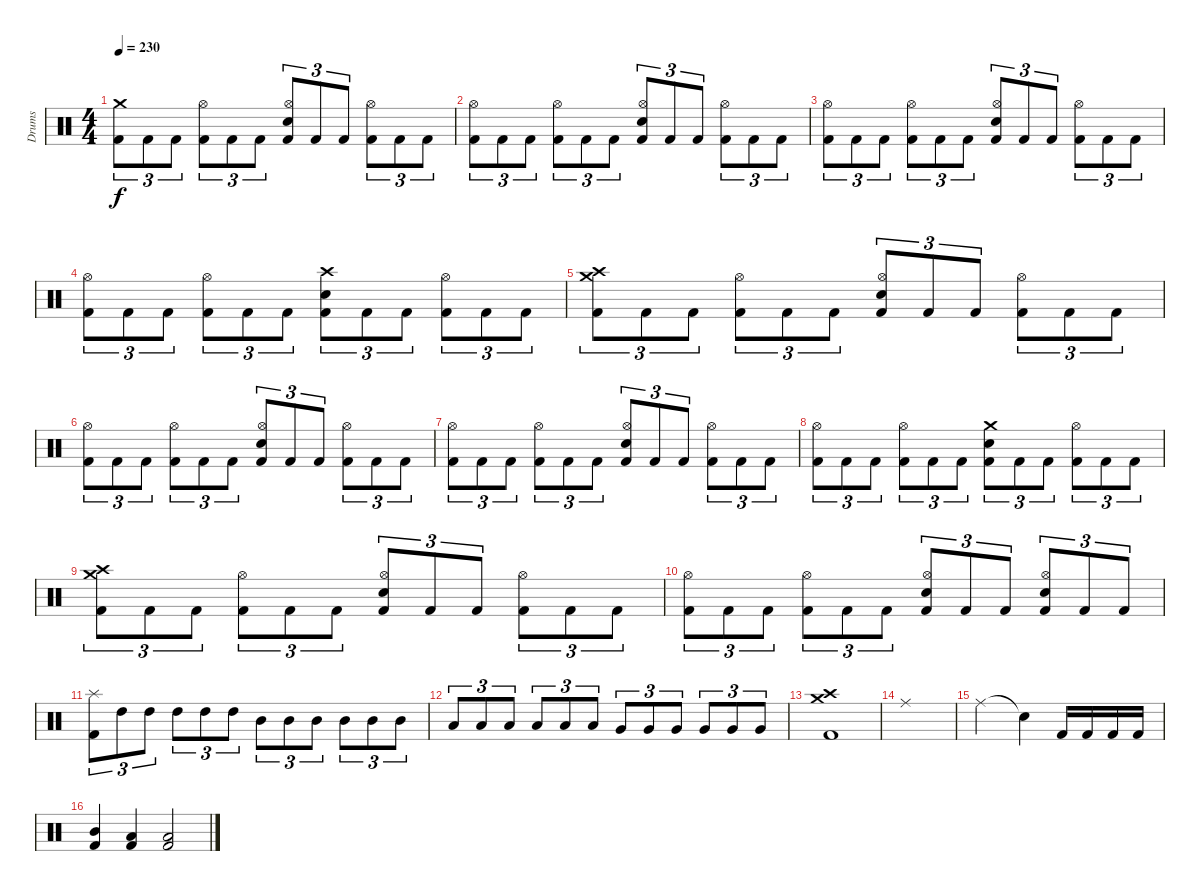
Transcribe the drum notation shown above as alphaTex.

\track ("Drums" "Drums") {instrument percussion}
\staff {score}
\articulation defaults
\ts (4 4)
\tempo 230
\clef neutral
\ks c
("Crash medium (hit)" "Kick (hit) 2").8{tu (3 2) dy f} "Kick (hit) 2".8{tu (3 2)} "Kick (hit) 2".8{tu (3 2)} ("Hi-Hat (open)" "Kick (hit) 2").8{tu (3 2)} "Kick (hit) 2".8{tu (3 2)} "Kick (hit) 2".8{tu (3 2)} ("Hi-Hat (open)" "Electric Snare (hit)" "Kick (hit) 2").8{tu (3 2)} "Kick (hit) 2".8{tu (3 2)} "Kick (hit) 2".8{tu (3 2)} ("Hi-Hat (open)" "Kick (hit) 2").8{tu (3 2)} "Kick (hit) 2".8{tu (3 2)} "Kick (hit) 2".8{tu (3 2)} |
("Hi-Hat (open)" "Kick (hit) 2").8{tu (3 2)} "Kick (hit) 2".8{tu (3 2)} "Kick (hit) 2".8{tu (3 2)} ("Hi-Hat (open)" "Kick (hit) 2").8{tu (3 2)} "Kick (hit) 2".8{tu (3 2)} "Kick (hit) 2".8{tu (3 2)} ("Hi-Hat (open)" "Electric Snare (hit)" "Kick (hit) 2").8{tu (3 2)} "Kick (hit) 2".8{tu (3 2)} "Kick (hit) 2".8{tu (3 2)} ("Hi-Hat (open)" "Kick (hit) 2").8{tu (3 2)} "Kick (hit) 2".8{tu (3 2)} "Kick (hit) 2".8{tu (3 2)} |
("Hi-Hat (open)" "Kick (hit) 2").8{tu (3 2)} "Kick (hit) 2".8{tu (3 2)} "Kick (hit) 2".8{tu (3 2)} ("Hi-Hat (open)" "Kick (hit) 2").8{tu (3 2)} "Kick (hit) 2".8{tu (3 2)} "Kick (hit) 2".8{tu (3 2)} ("Hi-Hat (open)" "Electric Snare (hit)" "Kick (hit) 2").8{tu (3 2)} "Kick (hit) 2".8{tu (3 2)} "Kick (hit) 2".8{tu (3 2)} ("Hi-Hat (open)" "Kick (hit) 2").8{tu (3 2)} "Kick (hit) 2".8{tu (3 2)} "Kick (hit) 2".8{tu (3 2)} |
("Hi-Hat (open)" "Kick (hit) 2").8{tu (3 2)} "Kick (hit) 2".8{tu (3 2)} "Kick (hit) 2".8{tu (3 2)} ("Hi-Hat (open)" "Kick (hit) 2").8{tu (3 2)} "Kick (hit) 2".8{tu (3 2)} "Kick (hit) 2".8{tu (3 2)} ("Crash high (hit)" "Electric Snare (hit)" "Kick (hit) 2").8{tu (3 2)} "Kick (hit) 2".8{tu (3 2)} "Kick (hit) 2".8{tu (3 2)} ("Hi-Hat (open)" "Kick (hit) 2").8{tu (3 2)} "Kick (hit) 2".8{tu (3 2)} "Kick (hit) 2".8{tu (3 2)} |
("Crash medium (hit)" "Crash high (hit)" "Kick (hit) 2").8{tu (3 2)} "Kick (hit) 2".8{tu (3 2)} "Kick (hit) 2".8{tu (3 2)} ("Hi-Hat (open)" "Kick (hit) 2").8{tu (3 2)} "Kick (hit) 2".8{tu (3 2)} "Kick (hit) 2".8{tu (3 2)} ("Hi-Hat (open)" "Electric Snare (hit)" "Kick (hit) 2").8{tu (3 2)} "Kick (hit) 2".8{tu (3 2)} "Kick (hit) 2".8{tu (3 2)} ("Hi-Hat (open)" "Kick (hit) 2").8{tu (3 2)} "Kick (hit) 2".8{tu (3 2)} "Kick (hit) 2".8{tu (3 2)} |
("Hi-Hat (open)" "Kick (hit) 2").8{tu (3 2)} "Kick (hit) 2".8{tu (3 2)} "Kick (hit) 2".8{tu (3 2)} ("Hi-Hat (open)" "Kick (hit) 2").8{tu (3 2)} "Kick (hit) 2".8{tu (3 2)} "Kick (hit) 2".8{tu (3 2)} ("Hi-Hat (open)" "Electric Snare (hit)" "Kick (hit) 2").8{tu (3 2)} "Kick (hit) 2".8{tu (3 2)} "Kick (hit) 2".8{tu (3 2)} ("Hi-Hat (open)" "Kick (hit) 2").8{tu (3 2)} "Kick (hit) 2".8{tu (3 2)} "Kick (hit) 2".8{tu (3 2)} |
("Hi-Hat (open)" "Kick (hit) 2").8{tu (3 2)} "Kick (hit) 2".8{tu (3 2)} "Kick (hit) 2".8{tu (3 2)} ("Hi-Hat (open)" "Kick (hit) 2").8{tu (3 2)} "Kick (hit) 2".8{tu (3 2)} "Kick (hit) 2".8{tu (3 2)} ("Hi-Hat (open)" "Electric Snare (hit)" "Kick (hit) 2").8{tu (3 2)} "Kick (hit) 2".8{tu (3 2)} "Kick (hit) 2".8{tu (3 2)} ("Hi-Hat (open)" "Kick (hit) 2").8{tu (3 2)} "Kick (hit) 2".8{tu (3 2)} "Kick (hit) 2".8{tu (3 2)} |
("Hi-Hat (open)" "Kick (hit) 2").8{tu (3 2)} "Kick (hit) 2".8{tu (3 2)} "Kick (hit) 2".8{tu (3 2)} ("Hi-Hat (open)" "Kick (hit) 2").8{tu (3 2)} "Kick (hit) 2".8{tu (3 2)} "Kick (hit) 2".8{tu (3 2)} ("Crash medium (hit)" "Electric Snare (hit)" "Kick (hit) 2").8{tu (3 2)} "Kick (hit) 2".8{tu (3 2)} "Kick (hit) 2".8{tu (3 2)} ("Hi-Hat (open)" "Kick (hit) 2").8{tu (3 2)} "Kick (hit) 2".8{tu (3 2)} "Kick (hit) 2".8{tu (3 2)} |
("Crash high (hit)" "Crash medium (hit)" "Kick (hit) 2").8{tu (3 2)} "Kick (hit) 2".8{tu (3 2)} "Kick (hit) 2".8{tu (3 2)} ("Hi-Hat (open)" "Kick (hit) 2").8{tu (3 2)} "Kick (hit) 2".8{tu (3 2)} "Kick (hit) 2".8{tu (3 2)} ("Hi-Hat (open)" "Electric Snare (hit)" "Kick (hit) 2").8{tu (3 2)} "Kick (hit) 2".8{tu (3 2)} "Kick (hit) 2".8{tu (3 2)} ("Hi-Hat (open)" "Kick (hit) 2").8{tu (3 2)} "Kick (hit) 2".8{tu (3 2)} "Kick (hit) 2".8{tu (3 2)} |
("Hi-Hat (open)" "Kick (hit) 2").8{tu (3 2)} "Kick (hit) 2".8{tu (3 2)} "Kick (hit) 2".8{tu (3 2)} ("Hi-Hat (open)" "Kick (hit) 2").8{tu (3 2)} "Kick (hit) 2".8{tu (3 2)} "Kick (hit) 2".8{tu (3 2)} ("Hi-Hat (open)" "Electric Snare (hit)" "Kick (hit) 2").8{tu (3 2)} "Kick (hit) 2".8{tu (3 2)} "Kick (hit) 2".8{tu (3 2)} ("Hi-Hat (open)" "Electric Snare (hit)" "Kick (hit) 2").8{tu (3 2)} "Kick (hit) 2".8{tu (3 2)} "Kick (hit) 2".8{tu (3 2)} |
("Splash (hit)" "Kick (hit) 2").8{tu (3 2)} "High Tom (hit)".8{tu (3 2)} "High Tom (hit)".8{tu (3 2)} "High Tom (hit)".8{tu (3 2)} "High Tom (hit)".8{tu (3 2)} "High Tom (hit)".8{tu (3 2)} "Mid Tom (hit)".8{tu (3 2)} "Mid Tom (hit)".8{tu (3 2)} "Mid Tom (hit)".8{tu (3 2)} "Mid Tom (hit)".8{tu (3 2)} "Mid Tom (hit)".8{tu (3 2)} "Mid Tom (hit)".8{tu (3 2)} |
"Low Tom (hit)".8{tu (3 2)} "Low Tom (hit)".8{tu (3 2)} "Low Tom (hit)".8{tu (3 2)} "Low Tom (hit)".8{tu (3 2)} "Low Tom (hit)".8{tu (3 2)} "Low Tom (hit)".8{tu (3 2)} "Very Low Tom (hit)".8{tu (3 2)} "Very Low Tom (hit)".8{tu (3 2)} "Very Low Tom (hit)".8{tu (3 2)} "Very Low Tom (hit)".8{tu (3 2)} "Very Low Tom (hit)".8{tu (3 2)} "Very Low Tom (hit)".8{tu (3 2)} |
("Crash medium (hit)" "Crash high (hit)" "Kick (hit) 2").1 |
"Ride (middle)".1 |
"Ride (middle)".2 "Snare (hit)"{t}.4 "Kick (hit) 2".16 "Kick (hit) 2".16 "Kick (hit) 2".16 "Kick (hit) 2".16 |
("Mid Tom (hit)" "Kick (hit) 2").4 ("Low Tom (hit)" "Kick (hit) 2").4 ("Low Floor Tom (hit)" "Kick (hit) 2").2
